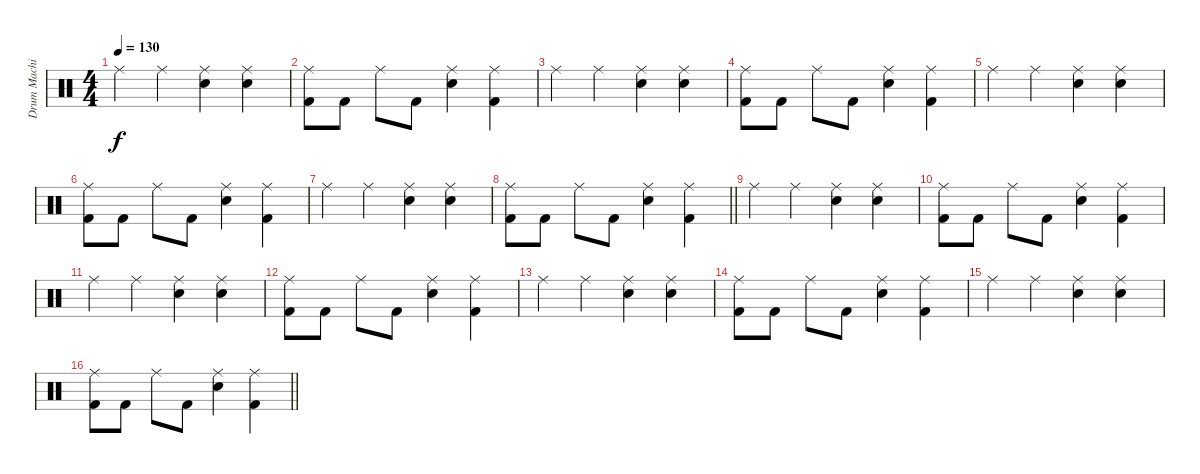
\track ("Drum Machine" "Drum Machi") {instrument percussion}
\staff {score}
\articulation defaults
\ts (4 4)
\tempo 130
\clef neutral
\ks c "Ride (middle)".4{dy f} "Ride (middle)".4
("Electric Snare (hit)" "Ride (middle)").4 ("Electric Snare (hit)" "Ride (middle)").4 |
("Kick (hit) 2" "Ride (middle)").8 "Kick (hit) 2".8 "Ride (middle)".8 "Kick (hit) 2".8 ("Electric Snare (hit)" "Ride (middle)").4 ("Kick (hit) 2" "Ride (middle)").4 |
"Ride (middle)".4 "Ride (middle)".4 ("Electric Snare (hit)" "Ride (middle)").4 ("Electric Snare (hit)" "Ride (middle)").4 |
("Kick (hit) 2" "Ride (middle)").8 "Kick (hit) 2".8 "Ride (middle)".8 "Kick (hit) 2".8 ("Electric Snare (hit)" "Ride (middle)").4 ("Kick (hit) 2" "Ride (middle)").4 |
"Ride (middle)".4 "Ride (middle)".4 ("Electric Snare (hit)" "Ride (middle)").4 ("Electric Snare (hit)" "Ride (middle)").4 |
("Kick (hit) 2" "Ride (middle)").8 "Kick (hit) 2".8 "Ride (middle)".8 "Kick (hit) 2".8 ("Electric Snare (hit)" "Ride (middle)").4 ("Kick (hit) 2" "Ride (middle)").4 |
"Ride (middle)".4 "Ride (middle)".4 ("Electric Snare (hit)" "Ride (middle)").4 ("Electric Snare (hit)" "Ride (middle)").4 |
\barLineRight lightlight
("Kick (hit) 2" "Ride (middle)").8 "Kick (hit) 2".8 "Ride (middle)".8 "Kick (hit) 2".8 ("Electric Snare (hit)" "Ride (middle)").4 ("Kick (hit) 2" "Ride (middle)").4 |
"Ride (middle)".4 "Ride (middle)".4 ("Electric Snare (hit)" "Ride (middle)").4 ("Electric Snare (hit)" "Ride (middle)").4 |
("Kick (hit) 2" "Ride (middle)").8 "Kick (hit) 2".8 "Ride (middle)".8 "Kick (hit) 2".8 ("Electric Snare (hit)" "Ride (middle)").4 ("Kick (hit) 2" "Ride (middle)").4 |
"Ride (middle)".4 "Ride (middle)".4 ("Electric Snare (hit)" "Ride (middle)").4 ("Electric Snare (hit)" "Ride (middle)").4 |
("Kick (hit) 2" "Ride (middle)").8 "Kick (hit) 2".8 "Ride (middle)".8 "Kick (hit) 2".8 ("Electric Snare (hit)" "Ride (middle)").4 ("Kick (hit) 2" "Ride (middle)").4 |
"Ride (middle)".4 "Ride (middle)".4 ("Electric Snare (hit)" "Ride (middle)").4 ("Electric Snare (hit)" "Ride (middle)").4 |
("Kick (hit) 2" "Ride (middle)").8 "Kick (hit) 2".8 "Ride (middle)".8 "Kick (hit) 2".8 ("Electric Snare (hit)" "Ride (middle)").4 ("Kick (hit) 2" "Ride (middle)").4 |
"Ride (middle)".4 "Ride (middle)".4 ("Electric Snare (hit)" "Ride (middle)").4 ("Electric Snare (hit)" "Ride (middle)").4 |
\barLineRight lightlight
("Kick (hit) 2" "Ride (middle)").8 "Kick (hit) 2".8 "Ride (middle)".8 "Kick (hit) 2".8 ("Electric Snare (hit)" "Ride (middle)").4 ("Kick (hit) 2" "Ride (middle)").4
